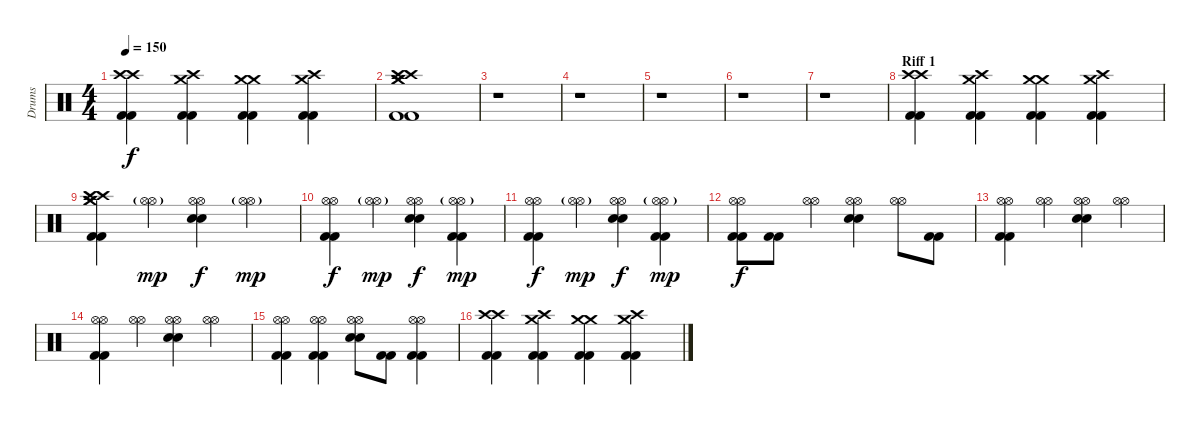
\track ("Drums" "Drums") {instrument percussion}
\staff {score}
\articulation defaults
\ts (4 4)
\tempo 150
\clef neutral
\ks c
("Crash high (hit)" "Crash high (hit)" "Kick (hit) 2" "Kick (hit) 2").4{dy f} ("Crash high (hit)" "Crash medium (hit)" "Kick (hit) 2" "Kick (hit) 2").4 ("Crash medium (hit)" "Crash medium (hit)" "Kick (hit) 2" "Kick (hit) 2").4 ("Crash medium (hit)" "Crash high (hit)" "Kick (hit) 2" "Kick (hit) 2").4 |
("Crash high (hit)" "Crash high (hit)" "Crash medium (hit)" "Crash medium (hit)" "Kick (hit) 2" "Kick (hit) 2").1 |
r.1 |
r.1 |
r.1 |
r.1 |
r.1 |
\section ("" "Riff 1")
("Crash high (hit)" "Crash high (hit)" "Kick (hit) 2" "Kick (hit) 2").4 ("Crash high (hit)" "Crash medium (hit)" "Kick (hit) 2" "Kick (hit) 2").4 ("Crash medium (hit)" "Crash medium (hit)" "Kick (hit) 2" "Kick (hit) 2").4 ("Crash medium (hit)" "Crash high (hit)" "Kick (hit) 2" "Kick (hit) 2").4 |
("Crash high (hit)" "Crash high (hit)" "Crash medium (hit)" "Crash medium (hit)" "Kick (hit) 2" "Kick (hit) 2").4 ("Hi-Hat (open)"{g} "Hi-Hat (open)"{g}).4{dy mp} ("Hi-Hat (open)" "Hi-Hat (open)" "Electric Snare (hit)" "Electric Snare (hit)").4{dy f} ("Hi-Hat (open)"{g} "Hi-Hat (open)"{g}).4{dy mp} |
("Hi-Hat (open)" "Hi-Hat (open)" "Kick (hit) 2" "Kick (hit) 2").4{dy f} ("Hi-Hat (open)"{g} "Hi-Hat (open)"{g}).4{dy mp} ("Hi-Hat (open)" "Hi-Hat (open)" "Electric Snare (hit)" "Electric Snare (hit)").4{dy f} ("Hi-Hat (open)"{g} "Hi-Hat (open)"{g} "Kick (hit) 2" "Kick (hit) 2").4{dy mp} |
("Hi-Hat (open)" "Hi-Hat (open)" "Kick (hit) 2" "Kick (hit) 2").4{dy f} ("Hi-Hat (open)"{g} "Hi-Hat (open)"{g}).4{dy mp} ("Hi-Hat (open)" "Hi-Hat (open)" "Electric Snare (hit)" "Electric Snare (hit)").4{dy f} ("Hi-Hat (open)"{g} "Hi-Hat (open)"{g} "Kick (hit) 2" "Kick (hit) 2").4{dy mp} |
("Hi-Hat (open)" "Hi-Hat (open)" "Kick (hit) 2" "Kick (hit) 2").8{dy f} ("Kick (hit) 2" "Kick (hit) 2").8 ("Hi-Hat (open)" "Hi-Hat (open)").4 ("Hi-Hat (open)" "Hi-Hat (open)" "Electric Snare (hit)" "Electric Snare (hit)").4 ("Hi-Hat (open)" "Hi-Hat (open)").8 ("Kick (hit) 2" "Kick (hit) 2").8 |
("Hi-Hat (open)" "Hi-Hat (open)" "Kick (hit) 2" "Kick (hit) 2").4 ("Hi-Hat (open)" "Hi-Hat (open)").4 ("Hi-Hat (open)" "Hi-Hat (open)" "Electric Snare (hit)" "Electric Snare (hit)").4 ("Hi-Hat (open)" "Hi-Hat (open)").4 |
("Hi-Hat (open)" "Hi-Hat (open)" "Kick (hit) 2" "Kick (hit) 2").4 ("Hi-Hat (open)" "Hi-Hat (open)").4 ("Hi-Hat (open)" "Hi-Hat (open)" "Electric Snare (hit)" "Electric Snare (hit)").4 ("Hi-Hat (open)" "Hi-Hat (open)").4 |
("Hi-Hat (open)" "Hi-Hat (open)" "Kick (hit) 2" "Kick (hit) 2").4 ("Hi-Hat (open)" "Hi-Hat (open)" "Kick (hit) 2" "Kick (hit) 2").4 ("Hi-Hat (open)" "Hi-Hat (open)" "Electric Snare (hit)" "Electric Snare (hit)").8 ("Kick (hit) 2" "Kick (hit) 2").8 ("Hi-Hat (open)" "Hi-Hat (open)" "Kick (hit) 2" "Kick (hit) 2").4 |
("Crash high (hit)" "Crash high (hit)" "Kick (hit) 2" "Kick (hit) 2").4 ("Crash high (hit)" "Crash medium (hit)" "Kick (hit) 2" "Kick (hit) 2").4 ("Crash medium (hit)" "Crash medium (hit)" "Kick (hit) 2" "Kick (hit) 2").4 ("Crash medium (hit)" "Crash high (hit)" "Kick (hit) 2" "Kick (hit) 2").4
